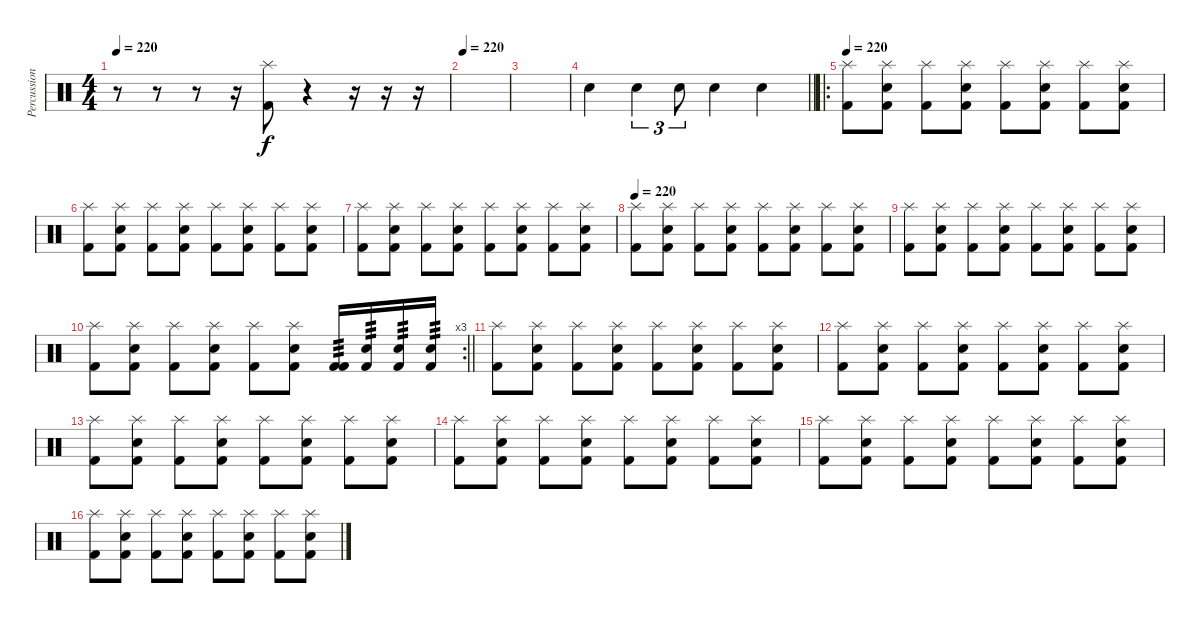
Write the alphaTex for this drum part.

\track ("Percussions" "Percussion") {instrument percussion}
\staff {score}
\articulation defaults
\ts (4 4)
\tempo 220
\clef neutral
\ks c
r.8{dy f} r.8 r.8 r.16 ("Kick (hit) 2" "Splash (hit)").8 r.4 r.16 r.16 r.16 |
\tempo 220
|
|
\barLineRight lightlight "Electric Snare (hit)".4 "Electric Snare (hit)".4{tu (3 2)} "Electric Snare (hit)".8{tu (3 2)} "Electric Snare (hit)".4 "Electric Snare (hit)".4
|
\ro
\section ("" "")
\tempo 220
("Kick (hit) 2" "Splash (hit)").8 ("Kick (hit) 2" "Electric Snare (hit)" "Splash (hit)").8 ("Kick (hit) 2" "Splash (hit)").8 ("Kick (hit) 2" "Electric Snare (hit)" "Splash (hit)").8 ("Kick (hit) 2" "Splash (hit)").8 ("Kick (hit) 2" "Electric Snare (hit)" "Splash (hit)").8 ("Kick (hit) 2" "Splash (hit)").8 ("Kick (hit) 2" "Electric Snare (hit)" "Splash (hit)").8 |
("Kick (hit) 2" "Splash (hit)").8 ("Kick (hit) 2" "Electric Snare (hit)" "Splash (hit)").8 ("Kick (hit) 2" "Splash (hit)").8 ("Kick (hit) 2" "Electric Snare (hit)" "Splash (hit)").8 ("Kick (hit) 2" "Splash (hit)").8 ("Kick (hit) 2" "Electric Snare (hit)" "Splash (hit)").8 ("Kick (hit) 2" "Splash (hit)").8 ("Kick (hit) 2" "Electric Snare (hit)" "Splash (hit)").8 |
("Kick (hit) 2" "Splash (hit)").8 ("Kick (hit) 2" "Electric Snare (hit)" "Splash (hit)").8 ("Kick (hit) 2" "Splash (hit)").8 ("Kick (hit) 2" "Electric Snare (hit)" "Splash (hit)").8 ("Kick (hit) 2" "Splash (hit)").8 ("Kick (hit) 2" "Electric Snare (hit)" "Splash (hit)").8 ("Kick (hit) 2" "Splash (hit)").8 ("Kick (hit) 2" "Electric Snare (hit)" "Splash (hit)").8 |
\tempo 220
("Kick (hit) 2" "Splash (hit)").8 ("Kick (hit) 2" "Electric Snare (hit)" "Splash (hit)").8 ("Kick (hit) 2" "Splash (hit)").8 ("Kick (hit) 2" "Electric Snare (hit)" "Splash (hit)").8 ("Kick (hit) 2" "Splash (hit)").8 ("Kick (hit) 2" "Electric Snare (hit)" "Splash (hit)").8 ("Kick (hit) 2" "Splash (hit)").8 ("Kick (hit) 2" "Electric Snare (hit)" "Splash (hit)").8 |
("Kick (hit) 2" "Splash (hit)").8 ("Kick (hit) 2" "Electric Snare (hit)" "Splash (hit)").8 ("Kick (hit) 2" "Splash (hit)").8 ("Kick (hit) 2" "Electric Snare (hit)" "Splash (hit)").8 ("Kick (hit) 2" "Splash (hit)").8 ("Kick (hit) 2" "Electric Snare (hit)" "Splash (hit)").8 ("Kick (hit) 2" "Splash (hit)").8 ("Kick (hit) 2" "Electric Snare (hit)" "Splash (hit)").8 |
\rc 3
\barLineRight lightlight
("Kick (hit) 2" "Splash (hit)").8 ("Kick (hit) 2" "Electric Snare (hit)" "Splash (hit)").8 ("Kick (hit) 2" "Splash (hit)").8 ("Kick (hit) 2" "Electric Snare (hit)" "Splash (hit)").8 ("Kick (hit) 2" "Splash (hit)").8 ("Kick (hit) 2" "Electric Snare (hit)" "Splash (hit)").8 ("Kick (hit) 2" "Kick (hit) 2").16{tp 3} ("Kick (hit) 2" "Electric Snare (hit)").16{tp 3} ("Kick (hit) 2" "Electric Snare (hit)").16{tp 3} ("Kick (hit) 2" "Electric Snare (hit)").16{tp 3} |
\section ("" "")
("Kick (hit) 2" "Splash (hit)").8 ("Kick (hit) 2" "Electric Snare (hit)" "Splash (hit)").8 ("Kick (hit) 2" "Splash (hit)").8 ("Kick (hit) 2" "Electric Snare (hit)" "Splash (hit)").8 ("Kick (hit) 2" "Splash (hit)").8 ("Kick (hit) 2" "Electric Snare (hit)" "Splash (hit)").8 ("Kick (hit) 2" "Splash (hit)").8 ("Kick (hit) 2" "Electric Snare (hit)" "Splash (hit)").8 |
("Kick (hit) 2" "Splash (hit)").8 ("Kick (hit) 2" "Electric Snare (hit)" "Splash (hit)").8 ("Kick (hit) 2" "Splash (hit)").8 ("Kick (hit) 2" "Electric Snare (hit)" "Splash (hit)").8 ("Kick (hit) 2" "Splash (hit)").8 ("Kick (hit) 2" "Electric Snare (hit)" "Splash (hit)").8 ("Kick (hit) 2" "Splash (hit)").8 ("Kick (hit) 2" "Electric Snare (hit)" "Splash (hit)").8 |
("Kick (hit) 2" "Splash (hit)").8 ("Kick (hit) 2" "Electric Snare (hit)" "Splash (hit)").8 ("Kick (hit) 2" "Splash (hit)").8 ("Kick (hit) 2" "Electric Snare (hit)" "Splash (hit)").8 ("Kick (hit) 2" "Splash (hit)").8 ("Kick (hit) 2" "Electric Snare (hit)" "Splash (hit)").8 ("Kick (hit) 2" "Splash (hit)").8 ("Kick (hit) 2" "Electric Snare (hit)" "Splash (hit)").8 |
("Kick (hit) 2" "Splash (hit)").8 ("Kick (hit) 2" "Electric Snare (hit)" "Splash (hit)").8 ("Kick (hit) 2" "Splash (hit)").8 ("Kick (hit) 2" "Electric Snare (hit)" "Splash (hit)").8 ("Kick (hit) 2" "Splash (hit)").8 ("Kick (hit) 2" "Electric Snare (hit)" "Splash (hit)").8 ("Kick (hit) 2" "Splash (hit)").8 ("Kick (hit) 2" "Electric Snare (hit)" "Splash (hit)").8 |
("Kick (hit) 2" "Splash (hit)").8 ("Kick (hit) 2" "Electric Snare (hit)" "Splash (hit)").8 ("Kick (hit) 2" "Splash (hit)").8 ("Kick (hit) 2" "Electric Snare (hit)" "Splash (hit)").8 ("Kick (hit) 2" "Splash (hit)").8 ("Kick (hit) 2" "Electric Snare (hit)" "Splash (hit)").8 ("Kick (hit) 2" "Splash (hit)").8 ("Kick (hit) 2" "Electric Snare (hit)" "Splash (hit)").8 |
("Kick (hit) 2" "Splash (hit)").8 ("Kick (hit) 2" "Electric Snare (hit)" "Splash (hit)").8 ("Kick (hit) 2" "Splash (hit)").8 ("Kick (hit) 2" "Electric Snare (hit)" "Splash (hit)").8 ("Kick (hit) 2" "Splash (hit)").8 ("Kick (hit) 2" "Electric Snare (hit)" "Splash (hit)").8 ("Kick (hit) 2" "Splash (hit)").8 ("Kick (hit) 2" "Electric Snare (hit)" "Splash (hit)").8
